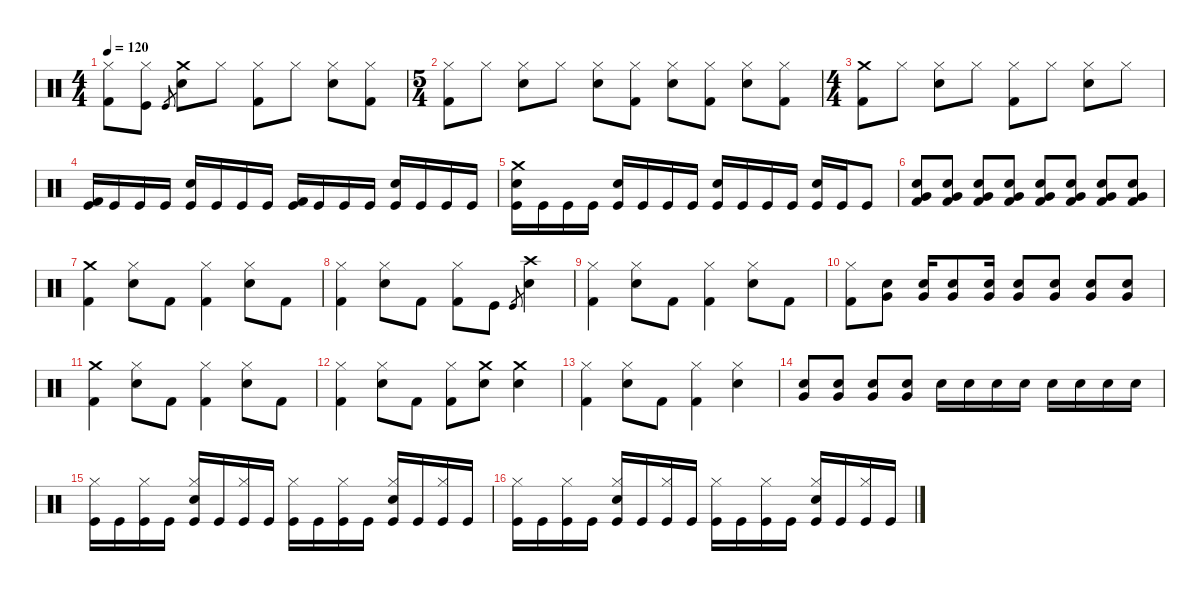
\defaultSystemsLayout 4
\hideDynamics
\bracketExtendMode nobrackets
\singleTrackTrackNamePolicy hidden
\multiTrackTrackNamePolicy hidden
\otherSystemsTrackNameOrientation horizontal
\track ("Ulrich" "drm.") {instrument percussion}
\staff {score}
\articulation defaults
\ts (4 4)
\tempo 120
\clef neutral
\ks c
("Hi-Hat (closed)" "Kick (hit) 2").8{dy f beam Down} ("Hi-Hat (closed)" "Kick (hit)").8{beam Down} "Kick (hit)".8{gr dy ff beam Up} ("Crash medium (hit)" "Snare (hit) 2").8{dy f beam Down} "Hi-Hat (closed)".8{beam Down} ("Hi-Hat (closed)" "Kick (hit) 2").8{beam Down} "Hi-Hat (closed)".8{beam Down} ("Hi-Hat (closed)" "Snare (hit) 2").8{beam Down} ("Hi-Hat (closed)" "Kick (hit) 2").8{beam Down} |
\ts (5 4)
("Hi-Hat (closed)" "Kick (hit) 2").8{beam Down} "Hi-Hat (closed)".8{beam Down} ("Hi-Hat (closed)" "Snare (hit) 2").8{beam Down} "Hi-Hat (closed)".8{beam Down} ("Hi-Hat (closed)" "Snare (hit) 2").8{beam Down} ("Hi-Hat (closed)" "Kick (hit) 2").8{beam Down} ("Hi-Hat (closed)" "Snare (hit) 2").8{beam Down} ("Hi-Hat (closed)" "Kick (hit) 2").8{beam Down} ("Hi-Hat (closed)" "Snare (hit) 2").8{beam Down} ("Hi-Hat (closed)" "Kick (hit) 2").8{beam Down} |
\ts (4 4)
("Crash medium (hit)" "Kick (hit) 2").8{beam Down} "Hi-Hat (closed)".8{beam Down} ("Hi-Hat (closed)" "Snare (hit) 2").8{beam Down} "Hi-Hat (closed)".8{beam Down} ("Hi-Hat (closed)" "Kick (hit) 2").8{beam Down} "Hi-Hat (closed)".8{beam Down} ("Hi-Hat (closed)" "Snare (hit) 2").8{beam Down} "Hi-Hat (closed)".8{beam Down} |
("Kick (hit)" "Kick (hit) 2").16{dy fff beam Up} "Kick (hit)".16{beam Up} "Kick (hit)".16{beam Up} "Kick (hit)".16{beam Up} ("Kick (hit)" "Snare (hit) 2").16{beam Up} "Kick (hit)".16{beam Up} "Kick (hit)".16{beam Up} "Kick (hit)".16{beam Up} ("Kick (hit)" "Kick (hit) 2").16{beam Up} "Kick (hit)".16{beam Up} "Kick (hit)".16{beam Up} "Kick (hit)".16{beam Up} ("Kick (hit)" "Snare (hit) 2").16{beam Up} "Kick (hit)".16{beam Up} "Kick (hit)".16{beam Up} "Kick (hit)".16{beam Up} |
("Crash medium (hit)" "Kick (hit)" "Snare (hit) 2").16{dy f beam Down} "Kick (hit)".16{dy fff beam Down} "Kick (hit)".16{beam Down} "Kick (hit)".16{beam Down} ("Kick (hit)" "Snare (hit) 2").16{beam Up} "Kick (hit)".16{beam Up} "Kick (hit)".16{beam Up} "Kick (hit)".16{beam Up} ("Kick (hit)" "Snare (hit) 2").16{beam Up} "Kick (hit)".16{beam Up} "Kick (hit)".16{beam Up} "Kick (hit)".16{beam Up} ("Kick (hit)" "Snare (hit) 2").16{beam Up} "Kick (hit)".16{beam Up} "Kick (hit)".8{beam Up} |
("Kick (hit) 2" "Snare (hit) 2" "Very Low Tom (hit)").8{dy f beam Up} ("Kick (hit) 2" "Snare (hit) 2" "Very Low Tom (hit)").8{beam Up} ("Kick (hit) 2" "Snare (hit) 2" "Very Low Tom (hit)").8{beam Up} ("Kick (hit) 2" "Snare (hit) 2" "Very Low Tom (hit)").8{beam Up} ("Kick (hit) 2" "Snare (hit) 2" "Very Low Tom (hit)").8{beam Up} ("Kick (hit) 2" "Snare (hit) 2" "Very Low Tom (hit)").8{beam Up} ("Kick (hit) 2" "Snare (hit) 2" "Very Low Tom (hit)").8{beam Up} ("Kick (hit) 2" "Snare (hit) 2" "Very Low Tom (hit)").8{beam Up} |
("Crash medium (hit)" "Kick (hit) 2").4{beam Down} ("Hi-Hat (closed)" "Snare (hit) 2").8{beam Down} "Kick (hit) 2".8{beam Down} ("Hi-Hat (closed)" "Kick (hit) 2").4{beam Down} ("Hi-Hat (closed)" "Snare (hit) 2").8{beam Down} "Kick (hit) 2".8{beam Down} |
("Hi-Hat (closed)" "Kick (hit) 2").4{beam Down} ("Hi-Hat (closed)" "Snare (hit) 2").8{beam Down} "Kick (hit) 2".8{beam Down} ("Hi-Hat (closed)" "Kick (hit) 2").8{beam Down} "Kick (hit)".8{dy fff beam Down} "Kick (hit)".8{gr dy ff beam Up} ("Crash high (hit)" "Snare (hit) 2").4{dy f beam Down} |
("Hi-Hat (closed)" "Kick (hit) 2").4{beam Down} ("Hi-Hat (closed)" "Snare (hit) 2").8{beam Down} "Kick (hit) 2".8{beam Down} ("Hi-Hat (closed)" "Kick (hit) 2").4{beam Down} ("Hi-Hat (closed)" "Snare (hit) 2").8{beam Down} "Kick (hit) 2".8{beam Down} |
("Hi-Hat (closed)" "Kick (hit) 2").8{beam Down} ("Snare (hit) 2" "Very Low Tom (hit)").8{beam Down} ("Snare (hit) 2" "Very Low Tom (hit)").16{beam Up} ("Snare (hit) 2" "Very Low Tom (hit)").8{beam Up} ("Snare (hit) 2" "Very Low Tom (hit)").16{beam Up} ("Snare (hit) 2" "Very Low Tom (hit)").8{beam Up} ("Snare (hit) 2" "Very Low Tom (hit)").8{beam Up} ("Snare (hit) 2" "Very Low Tom (hit)").8{beam Up} ("Snare (hit) 2" "Very Low Tom (hit)").8{beam Up} |
("Crash medium (hit)" "Kick (hit) 2").4{beam Down} ("Hi-Hat (closed)" "Snare (hit) 2").8{beam Down} "Kick (hit) 2".8{beam Down} ("Hi-Hat (closed)" "Kick (hit) 2").4{beam Down} ("Hi-Hat (closed)" "Snare (hit) 2").8{beam Down} "Kick (hit) 2".8{beam Down} |
("Hi-Hat (closed)" "Kick (hit) 2").4{beam Down} ("Hi-Hat (closed)" "Snare (hit) 2").8{beam Down} "Kick (hit) 2".8{beam Down} ("Hi-Hat (closed)" "Kick (hit) 2").8{beam Down} ("Crash medium (hit)" "Snare (hit) 2").8{beam Down} ("Crash medium (hit)" "Snare (hit) 2").4{beam Down} |
("Hi-Hat (closed)" "Kick (hit) 2").4{beam Down} ("Hi-Hat (closed)" "Snare (hit) 2").8{beam Down} "Kick (hit) 2".8{beam Down} ("Hi-Hat (closed)" "Kick (hit) 2").4{beam Down} ("Hi-Hat (closed)" "Snare (hit) 2").4{beam Down} |
("Snare (hit) 2" "Very Low Tom (hit)").8{beam Up} ("Snare (hit) 2" "Very Low Tom (hit)").8{beam Up} ("Snare (hit) 2" "Very Low Tom (hit)").8{beam Up} ("Snare (hit) 2" "Very Low Tom (hit)").8{beam Up} "Snare (hit) 2".16{beam Down} "Snare (hit) 2".16{beam Down} "Snare (hit) 2".16{beam Down} "Snare (hit) 2".16{beam Down} "Snare (hit) 2".16{beam Down} "Snare (hit) 2".16{beam Down} "Snare (hit) 2".16{beam Down} "Snare (hit) 2".16{beam Down} |
("Hi-Hat (closed)" "Kick (hit)").16{beam Down} "Kick (hit)".16{dy fff beam Down} ("Hi-Hat (closed)" "Kick (hit)").16{dy f beam Down} "Kick (hit)".16{dy fff beam Down} ("Hi-Hat (closed)" "Kick (hit)" "Snare (hit) 2").16{dy f beam Up} "Kick (hit)".16{dy fff beam Up} ("Hi-Hat (closed)" "Kick (hit)").16{dy f beam Up} "Kick (hit)".16{dy fff beam Up} ("Hi-Hat (closed)" "Kick (hit)").16{dy f beam Down} "Kick (hit)".16{dy fff beam Down} ("Hi-Hat (closed)" "Kick (hit)").16{dy f beam Down} "Kick (hit)".16{dy fff beam Down} ("Hi-Hat (closed)" "Kick (hit)" "Snare (hit) 2").16{dy f beam Up} "Kick (hit)".16{dy fff beam Up} ("Hi-Hat (closed)" "Kick (hit)").16{dy f beam Up} "Kick (hit)".16{dy fff beam Up} |
("Hi-Hat (closed)" "Kick (hit)").16{dy f beam Down} "Kick (hit)".16{dy fff beam Down} ("Hi-Hat (closed)" "Kick (hit)").16{dy f beam Down} "Kick (hit)".16{dy fff beam Down} ("Hi-Hat (closed)" "Kick (hit)" "Snare (hit) 2").16{dy f beam Up} "Kick (hit)".16{dy fff beam Up} ("Hi-Hat (closed)" "Kick (hit)").16{dy f beam Up} "Kick (hit)".16{dy fff beam Up} ("Hi-Hat (closed)" "Kick (hit)").16{dy f beam Down} "Kick (hit)".16{dy fff beam Down} ("Hi-Hat (closed)" "Kick (hit)").16{dy f beam Down} "Kick (hit)".16{dy fff beam Down} ("Hi-Hat (closed)" "Kick (hit)" "Snare (hit) 2").16{dy f beam Up} "Kick (hit)".16{dy fff beam Up} ("Hi-Hat (closed)" "Kick (hit)").16{dy f beam Up} "Kick (hit)".16{dy fff beam Up}
